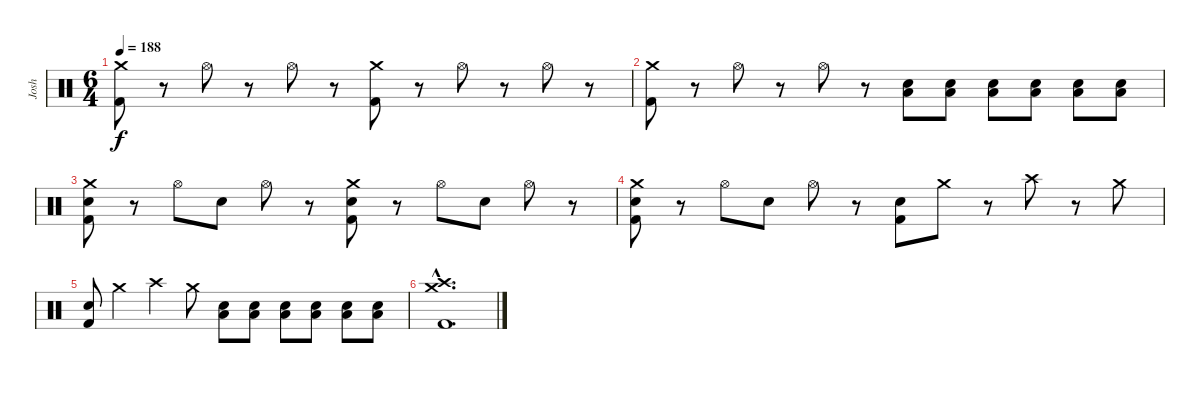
\track ("Josh" "Josh") {instrument percussion}
\staff {score}
\articulation defaults
\ts (6 4)
\tempo 188
\clef neutral
\ks c
("Crash medium (hit)" "Kick (hit) 2").8{dy f} r.8 "Hi-Hat (open)".8 r.8 "Hi-Hat (open)".8 r.8 ("Crash medium (hit)" "Kick (hit) 2").8 r.8 "Hi-Hat (open)".8 r.8 "Hi-Hat (open)".8 r.8 |
("Crash medium (hit)" "Kick (hit) 2").8 r.8 "Hi-Hat (open)".8 r.8 "Hi-Hat (open)".8 r.8 ("Electric Snare (hit)" "Low Floor Tom (hit)").8 ("Electric Snare (hit)" "Low Floor Tom (hit)").8 ("Electric Snare (hit)" "Low Floor Tom (hit)").8 ("Electric Snare (hit)" "Low Floor Tom (hit)").8 ("Electric Snare (hit)" "Low Floor Tom (hit)").8 ("Electric Snare (hit)" "Low Floor Tom (hit)").8 |
("Crash medium (hit)" "Electric Snare (hit)" "Kick (hit) 2").8 r.8 "Hi-Hat (open)".8 "Electric Snare (hit)".8 "Hi-Hat (open)".8 r.8 ("Crash medium (hit)" "Electric Snare (hit)" "Kick (hit) 2").8 r.8 "Hi-Hat (open)".8 "Electric Snare (hit)".8 "Hi-Hat (open)".8 r.8 |
("Crash medium (hit)" "Electric Snare (hit)" "Kick (hit) 2").8 r.8 "Hi-Hat (open)".8 "Electric Snare (hit)".8 "Hi-Hat (open)".8 r.8 ("Electric Snare (hit)" "Kick (hit) 2").8 "Crash medium (hit)".8 r.8 "Crash high (hit)".8 r.8 "Crash medium (hit)".8 |
("Electric Snare (hit)" "Kick (hit) 2").8 "Crash medium (hit)".4 "Crash high (hit)".4 "Crash medium (hit)".8 ("Electric Snare (hit)" "Low Floor Tom (hit)").8 ("Electric Snare (hit)" "Low Floor Tom (hit)").8 ("Electric Snare (hit)" "Low Floor Tom (hit)").8 ("Electric Snare (hit)" "Low Floor Tom (hit)").8 ("Electric Snare (hit)" "Low Floor Tom (hit)").8 ("Electric Snare (hit)" "Low Floor Tom (hit)").8 |
("Crash high (hit)"{hac} "Crash medium (hit)"{hac} "Kick (hit) 2"{hac}).1{d}
